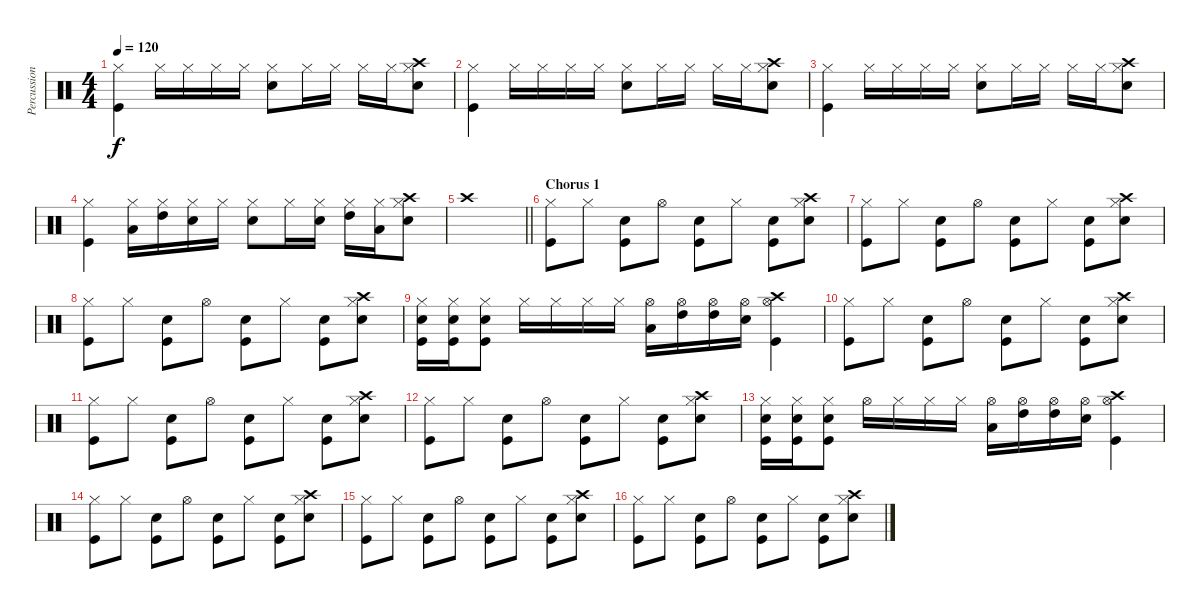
\track ("Percussion" "Percussion") {instrument percussion}
\staff {score}
\articulation defaults
\ts (4 4)
\tempo 120
\clef neutral
\ks c
("Hi-Hat (closed)" "Kick (hit)").4{dy f} "Hi-Hat (closed)".16 "Hi-Hat (closed)".16 "Hi-Hat (closed)".16 "Hi-Hat (closed)".16 ("Hi-Hat (closed)" "Snare (hit) 2").8 "Hi-Hat (closed)".16 "Hi-Hat (closed)".16 "Hi-Hat (closed)".16 "Hi-Hat (closed)".16 ("Hi-Hat (closed)" "Crash high (hit)" "Snare (hit) 2").8 |
("Hi-Hat (closed)" "Kick (hit)").4 "Hi-Hat (closed)".16 "Hi-Hat (closed)".16 "Hi-Hat (closed)".16 "Hi-Hat (closed)".16 ("Hi-Hat (closed)" "Snare (hit) 2").8 "Hi-Hat (closed)".16 "Hi-Hat (closed)".16 "Hi-Hat (closed)".16 "Hi-Hat (closed)".16 ("Hi-Hat (closed)" "Crash high (hit)" "Snare (hit) 2").8 |
("Hi-Hat (closed)" "Kick (hit)").4 "Hi-Hat (closed)".16 "Hi-Hat (closed)".16 "Hi-Hat (closed)".16 "Hi-Hat (closed)".16 ("Hi-Hat (closed)" "Snare (hit) 2").8 "Hi-Hat (closed)".16 "Hi-Hat (closed)".16 "Hi-Hat (closed)".16 "Hi-Hat (closed)".16 ("Hi-Hat (closed)" "Crash high (hit)" "Snare (hit) 2").8 |
("Hi-Hat (closed)" "Kick (hit)").4 ("Hi-Hat (closed)" "Low Tom (hit)").16 ("Hi-Hat (closed)" "High Tom (hit)").16 ("Hi-Hat (closed)" "Electric Snare (hit)").16 "Hi-Hat (closed)".16 ("Hi-Hat (closed)" "Snare (hit) 2").8 "Hi-Hat (closed)".16 ("Hi-Hat (closed)" "Electric Snare (hit)").16 ("Hi-Hat (closed)" "High Tom (hit)").16 ("Hi-Hat (closed)" "Low Tom (hit)").16 ("Hi-Hat (closed)" "Crash high (hit)" "Snare (hit) 2").8 |
\barLineRight lightlight "Crash high (hit)".1
|
\section ("" "Chorus 1")
("Hi-Hat (closed)" "Kick (hit)").8 "Hi-Hat (closed)".8 ("Electric Snare (hit)" "Kick (hit)").8 "Hi-Hat (open)".8 ("Electric Snare (hit)" "Kick (hit)").8 "Hi-Hat (closed)".8 ("Electric Snare (hit)" "Kick (hit)").8 ("Hi-Hat (closed)" "Crash high (hit)" "Snare (hit) 2").8 |
("Hi-Hat (closed)" "Kick (hit)").8 "Hi-Hat (closed)".8 ("Electric Snare (hit)" "Kick (hit)").8 "Hi-Hat (open)".8 ("Electric Snare (hit)" "Kick (hit)").8 "Hi-Hat (closed)".8 ("Electric Snare (hit)" "Kick (hit)").8 ("Hi-Hat (closed)" "Crash high (hit)" "Snare (hit) 2").8 |
("Hi-Hat (closed)" "Kick (hit)").8 "Hi-Hat (closed)".8 ("Electric Snare (hit)" "Kick (hit)").8 "Hi-Hat (open)".8 ("Electric Snare (hit)" "Kick (hit)").8 "Hi-Hat (closed)".8 ("Electric Snare (hit)" "Kick (hit)").8 ("Hi-Hat (closed)" "Crash high (hit)" "Snare (hit) 2").8 |
("Hi-Hat (closed)" "Snare (hit) 2" "Kick (hit)").16 ("Hi-Hat (closed)" "Snare (hit) 2" "Kick (hit)").16 ("Hi-Hat (closed)" "Snare (hit) 2" "Kick (hit)").8 "Hi-Hat (closed)".16 "Hi-Hat (closed)".16 "Hi-Hat (closed)".16 "Hi-Hat (closed)".16 ("Hi-Hat (open)" "Low Tom (hit)").16 ("Hi-Hat (open)" "High Tom (hit)").16 ("Hi-Hat (open)" "High Tom (hit)").16 ("Hi-Hat (open)" "Snare (hit) 2").16 ("Hi-Hat (open)" "Crash high (hit)" "Kick (hit)").4 |
("Hi-Hat (closed)" "Kick (hit)").8 "Hi-Hat (closed)".8 ("Electric Snare (hit)" "Kick (hit)").8 "Hi-Hat (open)".8 ("Electric Snare (hit)" "Kick (hit)").8 "Hi-Hat (closed)".8 ("Electric Snare (hit)" "Kick (hit)").8 ("Hi-Hat (closed)" "Crash high (hit)" "Snare (hit) 2").8 |
("Hi-Hat (closed)" "Kick (hit)").8 "Hi-Hat (closed)".8 ("Electric Snare (hit)" "Kick (hit)").8 "Hi-Hat (open)".8 ("Electric Snare (hit)" "Kick (hit)").8 "Hi-Hat (closed)".8 ("Electric Snare (hit)" "Kick (hit)").8 ("Hi-Hat (closed)" "Crash high (hit)" "Snare (hit) 2").8 |
("Hi-Hat (closed)" "Kick (hit)").8 "Hi-Hat (closed)".8 ("Electric Snare (hit)" "Kick (hit)").8 "Hi-Hat (open)".8 ("Electric Snare (hit)" "Kick (hit)").8 "Hi-Hat (closed)".8 ("Electric Snare (hit)" "Kick (hit)").8 ("Hi-Hat (closed)" "Crash high (hit)" "Snare (hit) 2").8 |
("Hi-Hat (closed)" "Snare (hit) 2" "Kick (hit)").16 ("Hi-Hat (closed)" "Snare (hit) 2" "Kick (hit)").16 ("Hi-Hat (closed)" "Snare (hit) 2" "Kick (hit)").8 "Hi-Hat (open)".16 "Hi-Hat (closed)".16 "Hi-Hat (closed)".16 "Hi-Hat (closed)".16 ("Hi-Hat (open)" "Low Tom (hit)").16 ("Hi-Hat (open)" "High Tom (hit)").16 ("Hi-Hat (open)" "High Tom (hit)").16 ("Hi-Hat (open)" "Snare (hit) 2").16 ("Hi-Hat (open)" "Crash high (hit)" "Kick (hit)").4 |
("Hi-Hat (closed)" "Kick (hit)").8 "Hi-Hat (closed)".8 ("Electric Snare (hit)" "Kick (hit)").8 "Hi-Hat (open)".8 ("Electric Snare (hit)" "Kick (hit)").8 "Hi-Hat (closed)".8 ("Electric Snare (hit)" "Kick (hit)").8 ("Hi-Hat (closed)" "Crash high (hit)" "Snare (hit) 2").8 |
("Hi-Hat (closed)" "Kick (hit)").8 "Hi-Hat (closed)".8 ("Electric Snare (hit)" "Kick (hit)").8 "Hi-Hat (open)".8 ("Electric Snare (hit)" "Kick (hit)").8 "Hi-Hat (closed)".8 ("Electric Snare (hit)" "Kick (hit)").8 ("Hi-Hat (closed)" "Crash high (hit)" "Snare (hit) 2").8 |
("Hi-Hat (closed)" "Kick (hit)").8 "Hi-Hat (closed)".8 ("Electric Snare (hit)" "Kick (hit)").8 "Hi-Hat (open)".8 ("Electric Snare (hit)" "Kick (hit)").8 "Hi-Hat (closed)".8 ("Electric Snare (hit)" "Kick (hit)").8 ("Hi-Hat (closed)" "Crash high (hit)" "Snare (hit) 2").8
